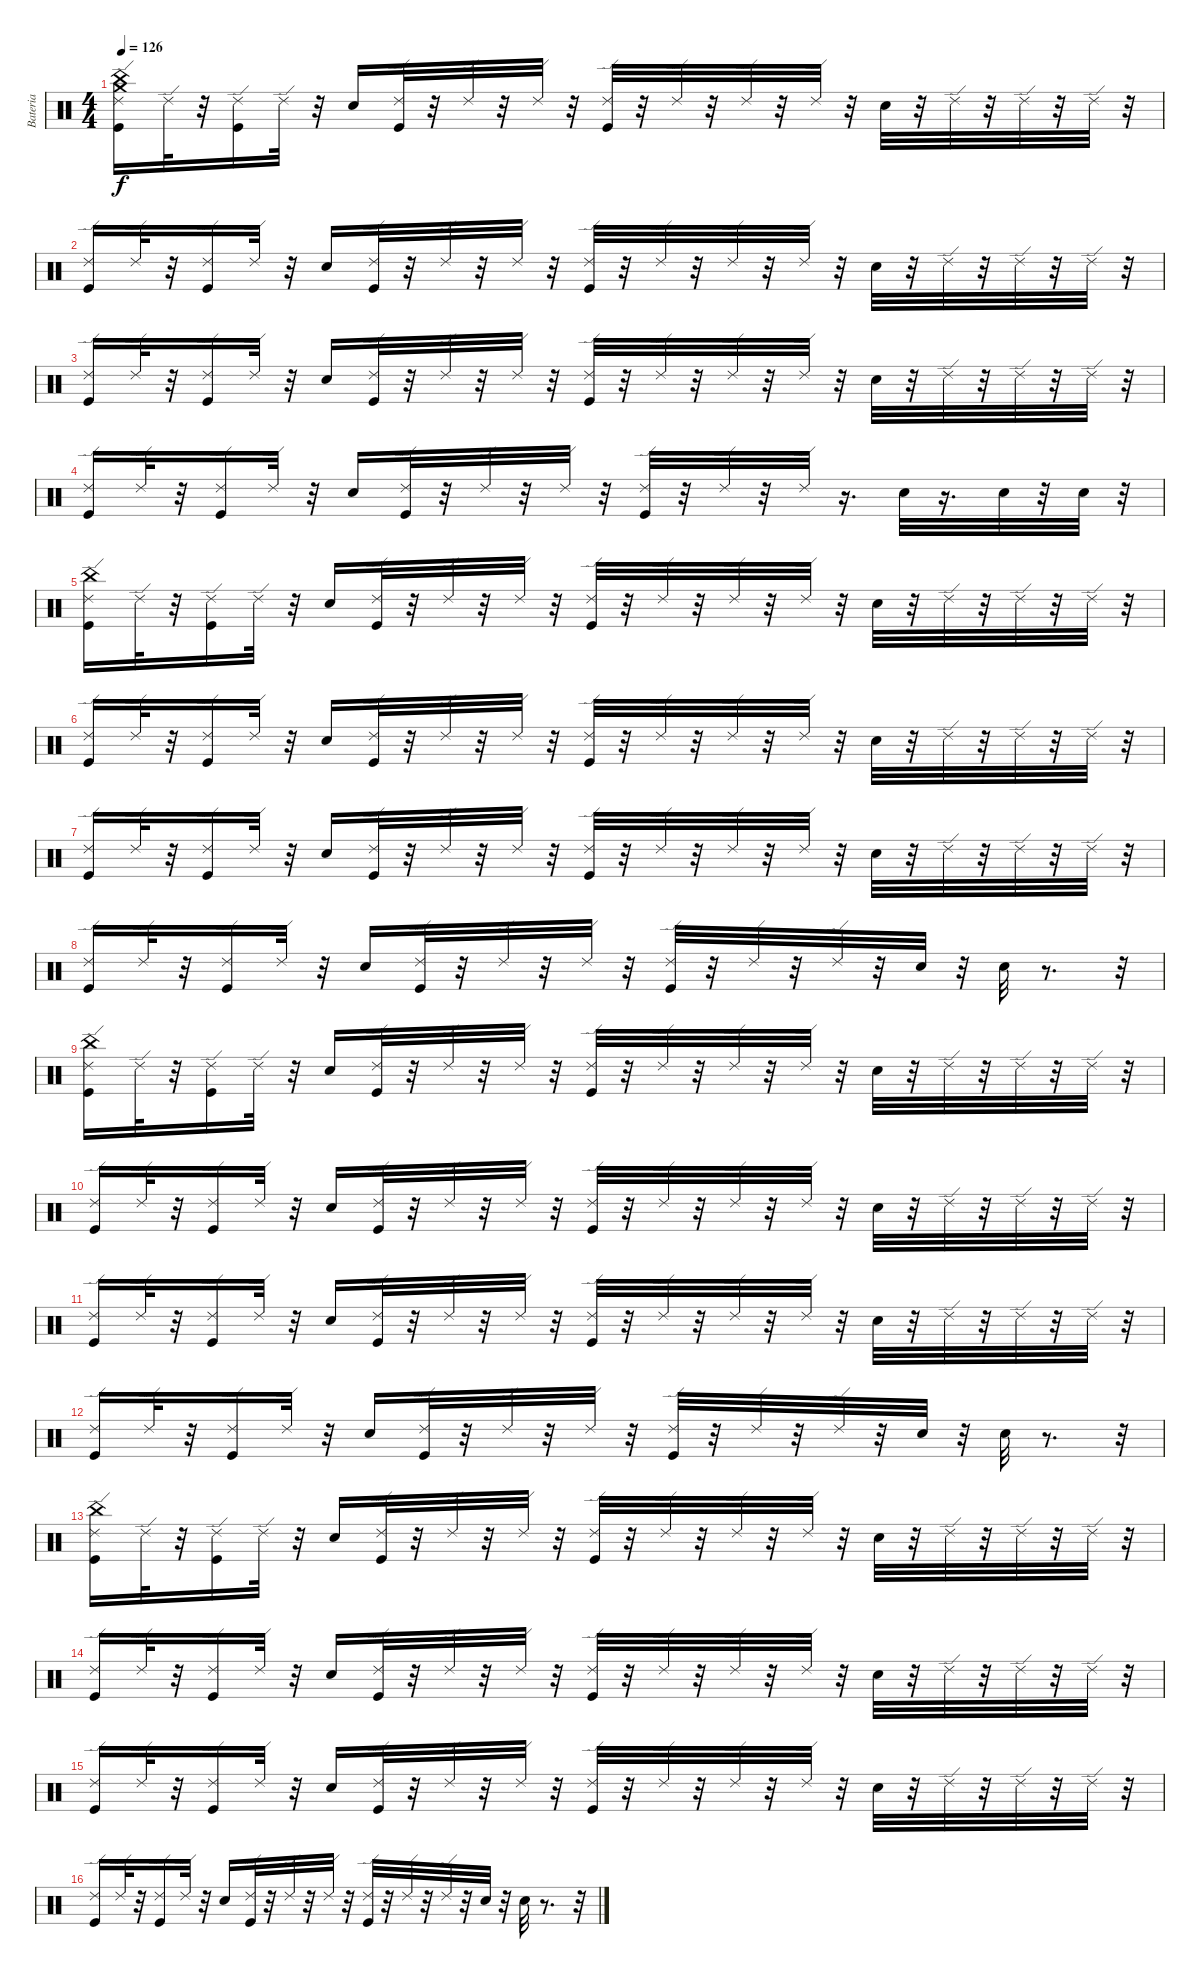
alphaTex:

\track ("Bateria" "Bateria") {instrument percussion}
\staff {score}
\articulation defaults
\ts (4 4)
\tempo 126
\clef neutral
\ks c
("Ride (edge) 2" "Kick (hit)" "Crash medium (hit)" "China (hit)").16{dy f} "Ride (edge) 2".32 r.32 ("Ride (edge) 2" "Kick (hit)").16 "Ride (edge) 2".32 r.32 "Snare (hit) 2".16 ("Kick (hit)" "Ride (edge) 2").32 r.32 "Ride (edge) 2".32 r.32 "Ride (edge) 2".32 r.32 ("Ride (edge) 2" "Kick (hit)").32 r.32 "Ride (edge) 2".32 r.32 "Ride (edge) 2".32 r.32 "Ride (edge) 2".32 r.32 "Snare (hit) 2".32 r.32 "Ride (edge) 2".32 r.32 "Ride (edge) 2".32 r.32 "Ride (edge) 2".32 r.32 |
("Ride (edge) 2" "Kick (hit)").16 "Ride (edge) 2".32 r.32 ("Kick (hit)" "Ride (edge) 2").16 "Ride (edge) 2".32 r.32 "Snare (hit) 2".16 ("Kick (hit)" "Ride (edge) 2").32 r.32 "Ride (edge) 2".32 r.32 "Ride (edge) 2".32 r.32 ("Ride (edge) 2" "Kick (hit)").32 r.32 "Ride (edge) 2".32 r.32 "Ride (edge) 2".32 r.32 "Ride (edge) 2".32 r.32 "Snare (hit) 2".32 r.32 "Ride (edge) 2".32 r.32 "Ride (edge) 2".32 r.32 "Ride (edge) 2".32 r.32 |
("Kick (hit)" "Ride (edge) 2").16 "Ride (edge) 2".32 r.32 ("Ride (edge) 2" "Kick (hit)").16 "Ride (edge) 2".32 r.32 "Snare (hit) 2".16 ("Ride (edge) 2" "Kick (hit)").32 r.32 "Ride (edge) 2".32 r.32 "Ride (edge) 2".32 r.32 ("Ride (edge) 2" "Kick (hit)").32 r.32 "Ride (edge) 2".32 r.32 "Ride (edge) 2".32 r.32 "Ride (edge) 2".32 r.32 "Snare (hit) 2".32 r.32 "Ride (edge) 2".32 r.32 "Ride (edge) 2".32 r.32 "Ride (edge) 2".32 r.32 |
("Ride (edge) 2" "Kick (hit)").16 "Ride (edge) 2".32 r.32 ("Kick (hit)" "Ride (edge) 2").16 "Ride (edge) 2".32 r.32 "Snare (hit) 2".16 ("Kick (hit)" "Ride (edge) 2").32 r.32 "Ride (edge) 2".32 r.32 "Ride (edge) 2".32 r.32 ("Kick (hit)" "Ride (edge) 2").32 r.32 "Ride (edge) 2".32 r.32 "Ride (edge) 2".32 r.16{d} "Snare (hit) 2".32 r.16{d} "Snare (hit) 2".32 r.32 "Snare (hit) 2".32 r.32 |
("Ride (edge) 2" "China (hit)" "Kick (hit)").16 "Ride (edge) 2".32 r.32 ("Ride (edge) 2" "Kick (hit)").16 "Ride (edge) 2".32 r.32 "Snare (hit) 2".16 ("Kick (hit)" "Ride (edge) 2").32 r.32 "Ride (edge) 2".32 r.32 "Ride (edge) 2".32 r.32 ("Kick (hit)" "Ride (edge) 2").32 r.32 "Ride (edge) 2".32 r.32 "Ride (edge) 2".32 r.32 "Ride (edge) 2".32 r.32 "Snare (hit) 2".32 r.32 "Ride (edge) 2".32 r.32 "Ride (edge) 2".32 r.32 "Ride (edge) 2".32 r.32 |
("Ride (edge) 2" "Kick (hit)").16 "Ride (edge) 2".32 r.32 ("Kick (hit)" "Ride (edge) 2").16 "Ride (edge) 2".32 r.32 "Snare (hit) 2".16 ("Ride (edge) 2" "Kick (hit)").32 r.32 "Ride (edge) 2".32 r.32 "Ride (edge) 2".32 r.32 ("Kick (hit)" "Ride (edge) 2").32 r.32 "Ride (edge) 2".32 r.32 "Ride (edge) 2".32 r.32 "Ride (edge) 2".32 r.32 "Snare (hit) 2".32 r.32 "Ride (edge) 2".32 r.32 "Ride (edge) 2".32 r.32 "Ride (edge) 2".32 r.32 |
("Kick (hit)" "Ride (edge) 2").16 "Ride (edge) 2".32 r.32 ("Kick (hit)" "Ride (edge) 2").16 "Ride (edge) 2".32 r.32 "Snare (hit) 2".16 ("Ride (edge) 2" "Kick (hit)").32 r.32 "Ride (edge) 2".32 r.32 "Ride (edge) 2".32 r.32 ("Ride (edge) 2" "Kick (hit)").32 r.32 "Ride (edge) 2".32 r.32 "Ride (edge) 2".32 r.32 "Ride (edge) 2".32 r.32 "Snare (hit) 2".32 r.32 "Ride (edge) 2".32 r.32 "Ride (edge) 2".32 r.32 "Ride (edge) 2".32 r.32 |
("Kick (hit)" "Ride (edge) 2").16 "Ride (edge) 2".32 r.32 ("Kick (hit)" "Ride (edge) 2").16 "Ride (edge) 2".32 r.32 "Snare (hit) 2".16 ("Kick (hit)" "Ride (edge) 2").32 r.32 "Ride (edge) 2".32 r.32 "Ride (edge) 2".32 r.32 ("Kick (hit)" "Ride (edge) 2").32 r.32 "Ride (edge) 2".32 r.32 "Ride (edge) 2".32 r.32 "Snare (hit) 2".32 r.32 "Snare (hit) 2".32 r.8{d} r.32 |
("Ride (edge) 2" "China (hit)" "Kick (hit)").16 "Ride (edge) 2".32 r.32 ("Ride (edge) 2" "Kick (hit)").16 "Ride (edge) 2".32 r.32 "Snare (hit) 2".16 ("Kick (hit)" "Ride (edge) 2").32 r.32 "Ride (edge) 2".32 r.32 "Ride (edge) 2".32 r.32 ("Kick (hit)" "Ride (edge) 2").32 r.32 "Ride (edge) 2".32 r.32 "Ride (edge) 2".32 r.32 "Ride (edge) 2".32 r.32 "Snare (hit) 2".32 r.32 "Ride (edge) 2".32 r.32 "Ride (edge) 2".32 r.32 "Ride (edge) 2".32 r.32 |
("Ride (edge) 2" "Kick (hit)").16 "Ride (edge) 2".32 r.32 ("Kick (hit)" "Ride (edge) 2").16 "Ride (edge) 2".32 r.32 "Snare (hit) 2".16 ("Ride (edge) 2" "Kick (hit)").32 r.32 "Ride (edge) 2".32 r.32 "Ride (edge) 2".32 r.32 ("Kick (hit)" "Ride (edge) 2").32 r.32 "Ride (edge) 2".32 r.32 "Ride (edge) 2".32 r.32 "Ride (edge) 2".32 r.32 "Snare (hit) 2".32 r.32 "Ride (edge) 2".32 r.32 "Ride (edge) 2".32 r.32 "Ride (edge) 2".32 r.32 |
("Kick (hit)" "Ride (edge) 2").16 "Ride (edge) 2".32 r.32 ("Kick (hit)" "Ride (edge) 2").16 "Ride (edge) 2".32 r.32 "Snare (hit) 2".16 ("Ride (edge) 2" "Kick (hit)").32 r.32 "Ride (edge) 2".32 r.32 "Ride (edge) 2".32 r.32 ("Ride (edge) 2" "Kick (hit)").32 r.32 "Ride (edge) 2".32 r.32 "Ride (edge) 2".32 r.32 "Ride (edge) 2".32 r.32 "Snare (hit) 2".32 r.32 "Ride (edge) 2".32 r.32 "Ride (edge) 2".32 r.32 "Ride (edge) 2".32 r.32 |
("Kick (hit)" "Ride (edge) 2").16 "Ride (edge) 2".32 r.32 ("Kick (hit)" "Ride (edge) 2").16 "Ride (edge) 2".32 r.32 "Snare (hit) 2".16 ("Kick (hit)" "Ride (edge) 2").32 r.32 "Ride (edge) 2".32 r.32 "Ride (edge) 2".32 r.32 ("Kick (hit)" "Ride (edge) 2").32 r.32 "Ride (edge) 2".32 r.32 "Ride (edge) 2".32 r.32 "Snare (hit) 2".32 r.32 "Snare (hit) 2".32 r.8{d} r.32 |
("Ride (edge) 2" "China (hit)" "Kick (hit)").16 "Ride (edge) 2".32 r.32 ("Ride (edge) 2" "Kick (hit)").16 "Ride (edge) 2".32 r.32 "Snare (hit) 2".16 ("Kick (hit)" "Ride (edge) 2").32 r.32 "Ride (edge) 2".32 r.32 "Ride (edge) 2".32 r.32 ("Kick (hit)" "Ride (edge) 2").32 r.32 "Ride (edge) 2".32 r.32 "Ride (edge) 2".32 r.32 "Ride (edge) 2".32 r.32 "Snare (hit) 2".32 r.32 "Ride (edge) 2".32 r.32 "Ride (edge) 2".32 r.32 "Ride (edge) 2".32 r.32 |
("Ride (edge) 2" "Kick (hit)").16 "Ride (edge) 2".32 r.32 ("Kick (hit)" "Ride (edge) 2").16 "Ride (edge) 2".32 r.32 "Snare (hit) 2".16 ("Ride (edge) 2" "Kick (hit)").32 r.32 "Ride (edge) 2".32 r.32 "Ride (edge) 2".32 r.32 ("Kick (hit)" "Ride (edge) 2").32 r.32 "Ride (edge) 2".32 r.32 "Ride (edge) 2".32 r.32 "Ride (edge) 2".32 r.32 "Snare (hit) 2".32 r.32 "Ride (edge) 2".32 r.32 "Ride (edge) 2".32 r.32 "Ride (edge) 2".32 r.32 |
("Kick (hit)" "Ride (edge) 2").16 "Ride (edge) 2".32 r.32 ("Kick (hit)" "Ride (edge) 2").16 "Ride (edge) 2".32 r.32 "Snare (hit) 2".16 ("Ride (edge) 2" "Kick (hit)").32 r.32 "Ride (edge) 2".32 r.32 "Ride (edge) 2".32 r.32 ("Ride (edge) 2" "Kick (hit)").32 r.32 "Ride (edge) 2".32 r.32 "Ride (edge) 2".32 r.32 "Ride (edge) 2".32 r.32 "Snare (hit) 2".32 r.32 "Ride (edge) 2".32 r.32 "Ride (edge) 2".32 r.32 "Ride (edge) 2".32 r.32 |
("Kick (hit)" "Ride (edge) 2").16 "Ride (edge) 2".32 r.32 ("Kick (hit)" "Ride (edge) 2").16 "Ride (edge) 2".32 r.32 "Snare (hit) 2".16 ("Kick (hit)" "Ride (edge) 2").32 r.32 "Ride (edge) 2".32 r.32 "Ride (edge) 2".32 r.32 ("Kick (hit)" "Ride (edge) 2").32 r.32 "Ride (edge) 2".32 r.32 "Ride (edge) 2".32 r.32 "Snare (hit) 2".32 r.32 "Snare (hit) 2".32 r.8{d} r.32
